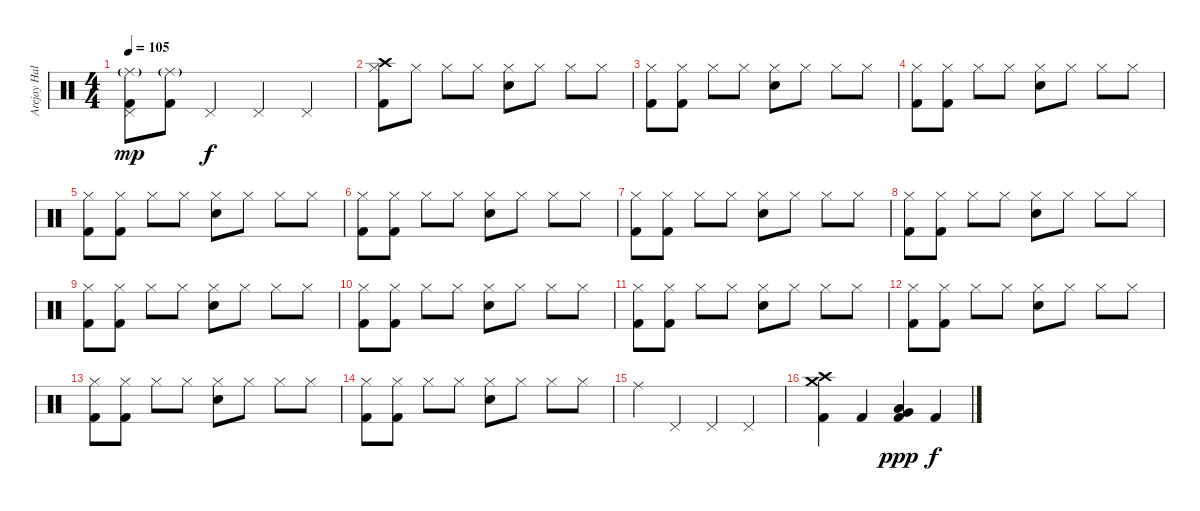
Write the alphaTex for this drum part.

\track ("Arejay Hale" "Arejay Hal") {instrument percussion}
\staff {score}
\articulation defaults
\ts (4 4)
\tempo 105
\clef neutral
\ks c
("Ride (middle)"{g} "Pedal Hi-Hat (hit)" "Kick (hit) 2").8{dy mp} ("Ride (middle)"{g} "Kick (hit) 2").8 "Pedal Hi-Hat (hit)".4{dy f} "Pedal Hi-Hat (hit)".4 "Pedal Hi-Hat (hit)".4 |
("Crash high (hit)" "Hi-Hat (closed)" "Kick (hit) 2").8 "Hi-Hat (closed)".8 "Hi-Hat (closed)".8 "Hi-Hat (closed)".8 ("Hi-Hat (closed)" "Electric Snare (hit)").8 "Hi-Hat (closed)".8 "Hi-Hat (closed)".8 "Hi-Hat (closed)".8 |
("Hi-Hat (closed)" "Kick (hit) 2").8 ("Hi-Hat (closed)" "Kick (hit) 2").8 "Hi-Hat (closed)".8 "Hi-Hat (closed)".8 ("Hi-Hat (closed)" "Electric Snare (hit)").8 "Hi-Hat (closed)".8 "Hi-Hat (closed)".8 "Hi-Hat (closed)".8 |
("Hi-Hat (closed)" "Kick (hit) 2").8 ("Hi-Hat (closed)" "Kick (hit) 2").8 "Hi-Hat (closed)".8 "Hi-Hat (closed)".8 ("Hi-Hat (closed)" "Electric Snare (hit)").8 "Hi-Hat (closed)".8 "Hi-Hat (closed)".8 "Hi-Hat (closed)".8 |
("Hi-Hat (closed)" "Kick (hit) 2").8 ("Hi-Hat (closed)" "Kick (hit) 2").8 "Hi-Hat (closed)".8 "Hi-Hat (closed)".8 ("Hi-Hat (closed)" "Electric Snare (hit)").8 "Hi-Hat (closed)".8 "Hi-Hat (closed)".8 "Hi-Hat (closed)".8 |
("Hi-Hat (closed)" "Kick (hit) 2").8 ("Hi-Hat (closed)" "Kick (hit) 2").8 "Hi-Hat (closed)".8 "Hi-Hat (closed)".8 ("Hi-Hat (closed)" "Electric Snare (hit)").8 "Hi-Hat (closed)".8 "Hi-Hat (closed)".8 "Hi-Hat (closed)".8 |
("Hi-Hat (closed)" "Kick (hit) 2").8 ("Hi-Hat (closed)" "Kick (hit) 2").8 "Hi-Hat (closed)".8 "Hi-Hat (closed)".8 ("Hi-Hat (closed)" "Electric Snare (hit)").8 "Hi-Hat (closed)".8 "Hi-Hat (closed)".8 "Hi-Hat (closed)".8 |
("Hi-Hat (closed)" "Kick (hit) 2").8 ("Hi-Hat (closed)" "Kick (hit) 2").8 "Hi-Hat (closed)".8 "Hi-Hat (closed)".8 ("Hi-Hat (closed)" "Electric Snare (hit)").8 "Hi-Hat (closed)".8 "Hi-Hat (closed)".8 "Hi-Hat (closed)".8 |
("Hi-Hat (closed)" "Kick (hit) 2").8 ("Hi-Hat (closed)" "Kick (hit) 2").8 "Hi-Hat (closed)".8 "Hi-Hat (closed)".8 ("Hi-Hat (closed)" "Electric Snare (hit)").8 "Hi-Hat (closed)".8 "Hi-Hat (closed)".8 "Hi-Hat (closed)".8 |
("Hi-Hat (closed)" "Kick (hit) 2").8 ("Hi-Hat (closed)" "Kick (hit) 2").8 "Hi-Hat (closed)".8 "Hi-Hat (closed)".8 ("Hi-Hat (closed)" "Electric Snare (hit)").8 "Hi-Hat (closed)".8 "Hi-Hat (closed)".8 "Hi-Hat (closed)".8 |
("Hi-Hat (closed)" "Kick (hit) 2").8 ("Hi-Hat (closed)" "Kick (hit) 2").8 "Hi-Hat (closed)".8 "Hi-Hat (closed)".8 ("Hi-Hat (closed)" "Electric Snare (hit)").8 "Hi-Hat (closed)".8 "Hi-Hat (closed)".8 "Hi-Hat (closed)".8 |
("Hi-Hat (closed)" "Kick (hit) 2").8 ("Hi-Hat (closed)" "Kick (hit) 2").8 "Hi-Hat (closed)".8 "Hi-Hat (closed)".8 ("Hi-Hat (closed)" "Electric Snare (hit)").8 "Hi-Hat (closed)".8 "Hi-Hat (closed)".8 "Hi-Hat (closed)".8 |
("Hi-Hat (closed)" "Kick (hit) 2").8 ("Hi-Hat (closed)" "Kick (hit) 2").8 "Hi-Hat (closed)".8 "Hi-Hat (closed)".8 ("Hi-Hat (closed)" "Electric Snare (hit)").8 "Hi-Hat (closed)".8 "Hi-Hat (closed)".8 "Hi-Hat (closed)".8 |
("Hi-Hat (closed)" "Kick (hit) 2").8 ("Hi-Hat (closed)" "Kick (hit) 2").8 "Hi-Hat (closed)".8 "Hi-Hat (closed)".8 ("Hi-Hat (closed)" "Electric Snare (hit)").8 "Hi-Hat (closed)".8 "Hi-Hat (closed)".8 "Hi-Hat (closed)".8 |
"Ride (middle)".4 "Pedal Hi-Hat (hit)".4 "Pedal Hi-Hat (hit)".4 "Pedal Hi-Hat (hit)".4 |
("Crash high (hit)" "Crash medium (hit)" "Kick (hit) 2").4 "Kick (hit) 2".4 ("Low Floor Tom (hit)" "Very Low Tom (hit)" "Kick (hit) 2").4{dy ppp} "Kick (hit) 2".4{dy f}
